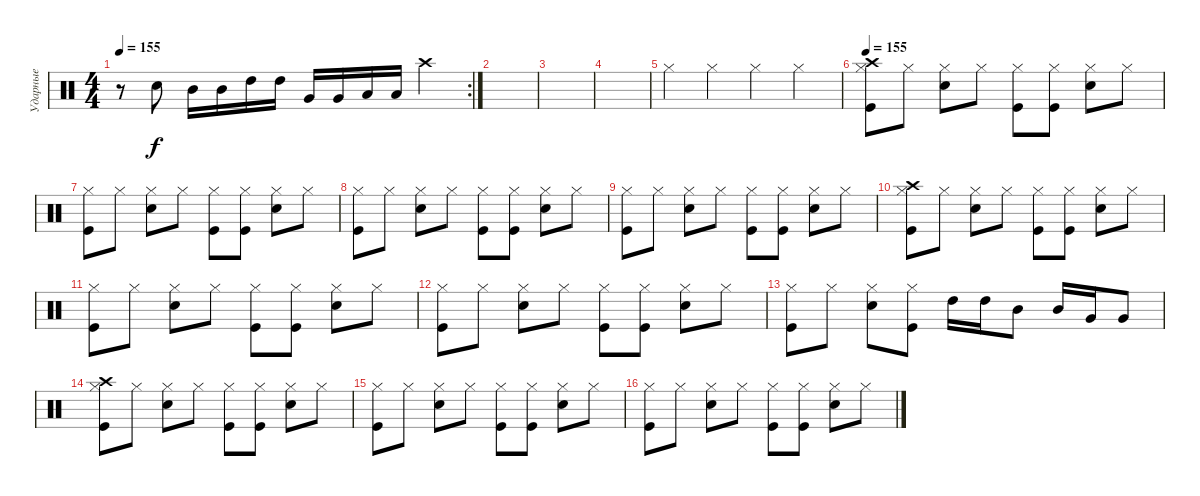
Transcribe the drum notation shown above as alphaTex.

\track ("Ударные" "Ударные") {instrument percussion}
\staff {score}
\articulation defaults
\rc 2
\ts (4 4)
\tempo 155
\clef neutral
\ks c
r.8{dy f} "Snare (hit) 2".8 "Mid Tom (hit)".16 "Mid Tom (hit)".16 "High Tom (hit)".16 "High Tom (hit)".16 "Very Low Tom (hit)".16 "Very Low Tom (hit)".16 "Low Floor Tom (hit)".16 "Low Floor Tom (hit)".16 "Crash high (hit)".4 |
|
|
|
"Hi-Hat (closed)".4 "Hi-Hat (closed)".4 "Hi-Hat (closed)".4 "Hi-Hat (closed)".4 |
\tempo 155
("Crash high (hit)" "Hi-Hat (closed)" "Kick (hit)").8 "Hi-Hat (closed)".8 ("Hi-Hat (closed)" "Snare (hit) 2").8 "Hi-Hat (closed)".8 ("Hi-Hat (closed)" "Kick (hit)").8 ("Hi-Hat (closed)" "Kick (hit)").8 ("Hi-Hat (closed)" "Snare (hit) 2").8 "Hi-Hat (closed)".8 |
("Hi-Hat (closed)" "Kick (hit)").8 "Hi-Hat (closed)".8 ("Hi-Hat (closed)" "Snare (hit) 2").8 "Hi-Hat (closed)".8 ("Hi-Hat (closed)" "Kick (hit)").8 ("Hi-Hat (closed)" "Kick (hit)").8 ("Hi-Hat (closed)" "Snare (hit) 2").8 "Hi-Hat (closed)".8 |
("Hi-Hat (closed)" "Kick (hit)").8 "Hi-Hat (closed)".8 ("Hi-Hat (closed)" "Snare (hit) 2").8 "Hi-Hat (closed)".8 ("Hi-Hat (closed)" "Kick (hit)").8 ("Hi-Hat (closed)" "Kick (hit)").8 ("Hi-Hat (closed)" "Snare (hit) 2").8 "Hi-Hat (closed)".8 |
("Hi-Hat (closed)" "Kick (hit)").8 "Hi-Hat (closed)".8 ("Hi-Hat (closed)" "Snare (hit) 2").8 "Hi-Hat (closed)".8 ("Hi-Hat (closed)" "Kick (hit)").8 ("Hi-Hat (closed)" "Kick (hit)").8 ("Hi-Hat (closed)" "Snare (hit) 2").8 "Hi-Hat (closed)".8 |
("Crash high (hit)" "Hi-Hat (closed)" "Kick (hit)").8 "Hi-Hat (closed)".8 ("Hi-Hat (closed)" "Snare (hit) 2").8 "Hi-Hat (closed)".8 ("Hi-Hat (closed)" "Kick (hit)").8 ("Hi-Hat (closed)" "Kick (hit)").8 ("Hi-Hat (closed)" "Snare (hit) 2").8 "Hi-Hat (closed)".8 |
("Hi-Hat (closed)" "Kick (hit)").8 "Hi-Hat (closed)".8 ("Hi-Hat (closed)" "Snare (hit) 2").8 "Hi-Hat (closed)".8 ("Hi-Hat (closed)" "Kick (hit)").8 ("Hi-Hat (closed)" "Kick (hit)").8 ("Hi-Hat (closed)" "Snare (hit) 2").8 "Hi-Hat (closed)".8 |
("Hi-Hat (closed)" "Kick (hit)").8 "Hi-Hat (closed)".8 ("Hi-Hat (closed)" "Snare (hit) 2").8 "Hi-Hat (closed)".8 ("Hi-Hat (closed)" "Kick (hit)").8 ("Hi-Hat (closed)" "Kick (hit)").8 ("Hi-Hat (closed)" "Snare (hit) 2").8 "Hi-Hat (closed)".8 |
("Hi-Hat (closed)" "Kick (hit)").8 "Hi-Hat (closed)".8 ("Hi-Hat (closed)" "Snare (hit) 2").8 ("Hi-Hat (closed)" "Kick (hit)").8 "High Tom (hit)".16 "High Tom (hit)".16 "Mid Tom (hit)".8 "Mid Tom (hit)".16 "Very Low Tom (hit)".16 "Very Low Tom (hit)".8 |
("Crash high (hit)" "Hi-Hat (closed)" "Kick (hit)").8 "Hi-Hat (closed)".8 ("Hi-Hat (closed)" "Snare (hit) 2").8 "Hi-Hat (closed)".8 ("Hi-Hat (closed)" "Kick (hit)").8 ("Hi-Hat (closed)" "Kick (hit)").8 ("Hi-Hat (closed)" "Snare (hit) 2").8 "Hi-Hat (closed)".8 |
("Hi-Hat (closed)" "Kick (hit)").8 "Hi-Hat (closed)".8 ("Hi-Hat (closed)" "Snare (hit) 2").8 "Hi-Hat (closed)".8 ("Hi-Hat (closed)" "Kick (hit)").8 ("Hi-Hat (closed)" "Kick (hit)").8 ("Hi-Hat (closed)" "Snare (hit) 2").8 "Hi-Hat (closed)".8 |
("Hi-Hat (closed)" "Kick (hit)").8 "Hi-Hat (closed)".8 ("Hi-Hat (closed)" "Snare (hit) 2").8 "Hi-Hat (closed)".8 ("Hi-Hat (closed)" "Kick (hit)").8 ("Hi-Hat (closed)" "Kick (hit)").8 ("Hi-Hat (closed)" "Snare (hit) 2").8 "Hi-Hat (closed)".8
